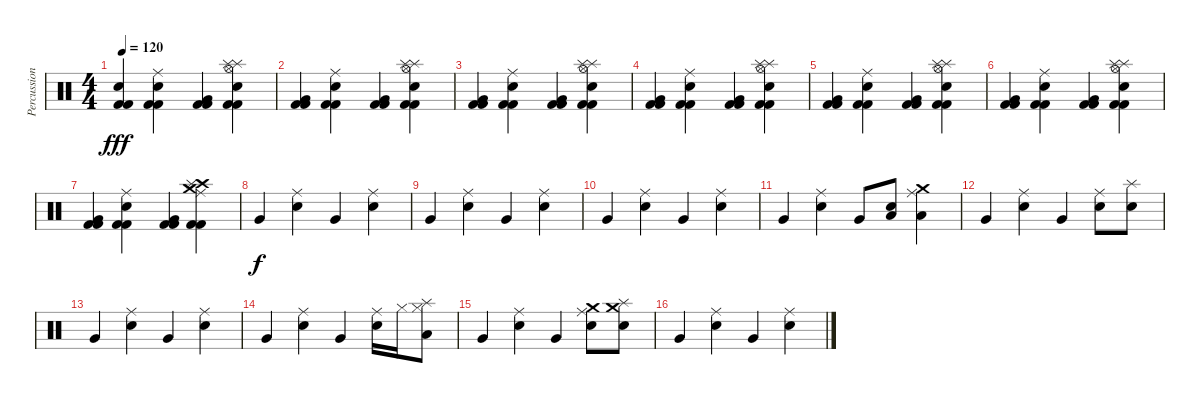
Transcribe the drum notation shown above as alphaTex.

\track ("Percussion" "Percussion") {instrument percussion}
\staff {score}
\articulation defaults
\ts (4 4)
\tempo 120
\clef neutral
\ks c
("Kick (hit) 2" "Snare (hit)" "Kick (hit) 2").4{dy fff} ("Ride (middle)" "Kick (hit) 2" "Snare (hit) 2" "Kick (hit) 2").4 ("Kick (hit) 2" "Very Low Tom (hit)" "Kick (hit) 2").4 ("Splash (hit)" "Hi-Hat (open)" "Splash (hit)" "Kick (hit) 2" "Snare (hit) 2" "Kick (hit) 2").4 |
("Kick (hit) 2" "Very Low Tom (hit)" "Kick (hit) 2").4 ("Ride (middle)" "Kick (hit) 2" "Snare (hit) 2" "Kick (hit) 2").4 ("Kick (hit) 2" "Very Low Tom (hit)" "Kick (hit) 2").4 ("Splash (hit)" "Hi-Hat (open)" "Splash (hit)" "Kick (hit) 2" "Snare (hit) 2" "Kick (hit) 2").4 |
("Kick (hit) 2" "Very Low Tom (hit)" "Kick (hit) 2").4 ("Ride (middle)" "Kick (hit) 2" "Snare (hit) 2" "Kick (hit) 2").4 ("Kick (hit) 2" "Very Low Tom (hit)" "Kick (hit) 2").4 ("Splash (hit)" "Hi-Hat (open)" "Splash (hit)" "Kick (hit) 2" "Snare (hit) 2" "Kick (hit) 2").4 |
("Kick (hit) 2" "Very Low Tom (hit)" "Kick (hit) 2").4 ("Ride (middle)" "Kick (hit) 2" "Snare (hit) 2" "Kick (hit) 2").4 ("Kick (hit) 2" "Very Low Tom (hit)" "Kick (hit) 2").4 ("Splash (hit)" "Hi-Hat (open)" "Splash (hit)" "Kick (hit) 2" "Snare (hit) 2" "Kick (hit) 2").4 |
("Kick (hit) 2" "Very Low Tom (hit)" "Kick (hit) 2").4 ("Ride (middle)" "Kick (hit) 2" "Snare (hit) 2" "Kick (hit) 2").4 ("Kick (hit) 2" "Very Low Tom (hit)" "Kick (hit) 2").4 ("Splash (hit)" "Hi-Hat (open)" "Splash (hit)" "Kick (hit) 2" "Snare (hit) 2" "Kick (hit) 2").4 |
("Kick (hit) 2" "Very Low Tom (hit)" "Kick (hit) 2").4 ("Ride (middle)" "Kick (hit) 2" "Snare (hit) 2" "Kick (hit) 2").4 ("Kick (hit) 2" "Very Low Tom (hit)" "Kick (hit) 2").4 ("Splash (hit)" "Hi-Hat (open)" "Splash (hit)" "Kick (hit) 2" "Snare (hit) 2" "Kick (hit) 2").4 |
("Kick (hit) 2" "Very Low Tom (hit)" "Kick (hit) 2").4 ("Ride (middle)" "Kick (hit) 2" "Snare (hit) 2" "Kick (hit) 2").4 ("Kick (hit) 2" "Very Low Tom (hit)" "Kick (hit) 2").4 ("Crash medium (hit)" "Ride (middle)" "Crash high (hit)" "Kick (hit) 2" "Splash (hit)" "Kick (hit) 2").4 |
"Very Low Tom (hit)".4{dy f} ("Ride (middle)" "Snare (hit) 2").4 "Very Low Tom (hit)".4 ("Ride (middle)" "Snare (hit) 2").4 |
"Very Low Tom (hit)".4 ("Ride (middle)" "Snare (hit) 2").4 "Very Low Tom (hit)".4 ("Ride (middle)" "Snare (hit) 2").4 |
"Very Low Tom (hit)".4 ("Ride (middle)" "Snare (hit) 2").4 "Very Low Tom (hit)".4 ("Ride (middle)" "Snare (hit) 2").4 |
"Very Low Tom (hit)".4 ("Ride (middle)" "Snare (hit) 2").4 "Very Low Tom (hit)".8 ("Electric Snare (hit)" "Low Floor Tom (hit)").8 ("Crash medium (hit)" "Ride (middle)" "Low Tom (hit)").4 |
"Very Low Tom (hit)".4 ("Ride (middle)" "Snare (hit) 2").4 "Very Low Tom (hit)".4 ("Ride (middle)" "Snare (hit) 2").8 ("Splash (hit)" "Snare (hit) 2").8 |
"Very Low Tom (hit)".4 ("Ride (middle)" "Snare (hit) 2").4 "Very Low Tom (hit)".4 ("Ride (middle)" "Snare (hit) 2").4 |
"Very Low Tom (hit)".4 ("Ride (middle)" "Snare (hit) 2").4 "Very Low Tom (hit)".4 ("Ride (middle)" "Snare (hit) 2").16 "Hi-Hat (closed)".16 ("Splash (hit)" "Low Floor Tom (hit)" "Hi-Hat (closed)").8 |
"Very Low Tom (hit)".4 ("Ride (middle)" "Snare (hit) 2").4 "Very Low Tom (hit)".4 ("Crash medium (hit)" "Ride (middle)" "Snare (hit) 2").8 ("Crash medium (hit)" "Splash (hit)" "Electric Snare (hit)").8 |
"Very Low Tom (hit)".4 ("Ride (middle)" "Snare (hit) 2").4 "Very Low Tom (hit)".4 ("Ride (middle)" "Snare (hit) 2").4
